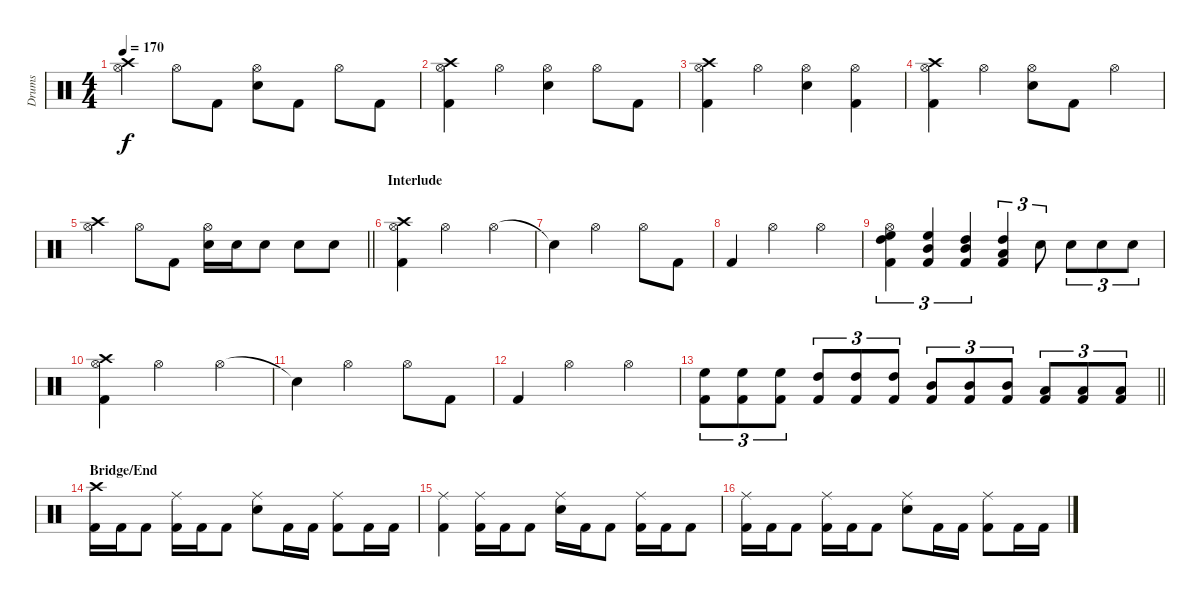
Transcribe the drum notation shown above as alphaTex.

\track ("Drums" "Drums") {instrument percussion}
\staff {score}
\articulation defaults
\ts (4 4)
\tempo 170
\clef neutral
\ks c
("Crash high (hit)" "Hi-Hat (open)").4{dy f} "Hi-Hat (open)".8 "Kick (hit) 2".8 ("Hi-Hat (open)" "Electric Snare (hit)").8 "Kick (hit) 2".8 "Hi-Hat (open)".8 "Kick (hit) 2".8 |
("Crash high (hit)" "Hi-Hat (open)" "Kick (hit) 2").4 "Hi-Hat (open)".4 ("Hi-Hat (open)" "Electric Snare (hit)").4 "Hi-Hat (open)".8 "Kick (hit) 2".8 |
("Crash high (hit)" "Hi-Hat (open)" "Kick (hit) 2").4 "Hi-Hat (open)".4 ("Hi-Hat (open)" "Electric Snare (hit)").4 ("Hi-Hat (open)" "Kick (hit) 2").4 |
("Crash high (hit)" "Hi-Hat (open)" "Kick (hit) 2").4 "Hi-Hat (open)".4 ("Hi-Hat (open)" "Electric Snare (hit)").8 "Kick (hit) 2".8 "Hi-Hat (open)".4 |
\barLineRight lightlight
("Crash high (hit)" "Hi-Hat (open)").4 "Hi-Hat (open)".8 "Kick (hit) 2".8 ("Hi-Hat (open)" "Electric Snare (hit)").16 "Electric Snare (hit)".16 "Electric Snare (hit)".8 "Electric Snare (hit)".8 "Electric Snare (hit)".8 |
\section ("" "Interlude")
("Crash high (hit)" "Hi-Hat (open)" "Kick (hit) 2").4 "Hi-Hat (open)".2 "Hi-Hat (open)".4 |
"Snare (hit)"{t}.4 "Hi-Hat (open)".2 "Hi-Hat (open)".8 "Kick (hit) 2".8 |
"Kick (hit) 2".4 "Hi-Hat (open)".2 "Hi-Hat (open)".4 |
("Hi-Hat (open)" "High Floor Tom (hit)" "High Tom (hit)" "Kick (hit) 2").4{tu (3 2)} ("High Floor Tom (hit)" "Mid Tom (hit)" "Kick (hit) 2").4{tu (3 2)} ("High Tom (hit)" "Mid Tom (hit)" "Kick (hit) 2").4{tu (3 2)} ("High Tom (hit)" "Low Tom (hit)" "Kick (hit) 2").4{tu (3 2)} "Electric Snare (hit)".8{tu (3 2)} "Electric Snare (hit)".8{tu (3 2)} "Electric Snare (hit)".8{tu (3 2)} "Electric Snare (hit)".8{tu (3 2)} |
("Crash high (hit)" "Hi-Hat (open)" "Kick (hit) 2").4 "Hi-Hat (open)".2 "Hi-Hat (open)".4 |
"Snare (hit)"{t}.4 "Hi-Hat (open)".2 "Hi-Hat (open)".8 "Kick (hit) 2".8 |
"Kick (hit) 2".4 "Hi-Hat (open)".2 "Hi-Hat (open)".4 |
\barLineRight lightlight
("High Floor Tom (hit)" "Kick (hit) 2").8{tu (3 2)} ("High Floor Tom (hit)" "Kick (hit) 2").8{tu (3 2)} ("High Floor Tom (hit)" "Kick (hit) 2").8{tu (3 2)} ("High Tom (hit)" "Kick (hit) 2").8{tu (3 2)} ("High Tom (hit)" "Kick (hit) 2").8{tu (3 2)} ("High Tom (hit)" "Kick (hit) 2").8{tu (3 2)} ("Mid Tom (hit)" "Kick (hit) 2").8{tu (3 2)} ("Mid Tom (hit)" "Kick (hit) 2").8{tu (3 2)} ("Mid Tom (hit)" "Kick (hit) 2").8{tu (3 2)} ("Low Tom (hit)" "Kick (hit) 2").8{tu (3 2)} ("Low Tom (hit)" "Kick (hit) 2").8{tu (3 2)} ("Low Tom (hit)" "Kick (hit) 2").8{tu (3 2)} |
\section ("" "Bridge/End")
("Crash high (hit)" "Kick (hit) 2").16 "Kick (hit) 2".16 "Kick (hit) 2".8 ("Ride (middle)" "Kick (hit) 2").16 "Kick (hit) 2".16 "Kick (hit) 2".8 ("Ride (middle)" "Electric Snare (hit)").8 "Kick (hit) 2".16 "Kick (hit) 2".16 ("Ride (middle)" "Kick (hit) 2").8 "Kick (hit) 2".16 "Kick (hit) 2".16 |
("Ride (middle)" "Kick (hit) 2").4 ("Ride (middle)" "Kick (hit) 2").16 "Kick (hit) 2".16 "Kick (hit) 2".8 ("Ride (middle)" "Electric Snare (hit)").16 "Kick (hit) 2".16 "Kick (hit) 2".8 ("Ride (middle)" "Kick (hit) 2").16 "Kick (hit) 2".16 "Kick (hit) 2".8 |
("Ride (middle)" "Kick (hit) 2").16 "Kick (hit) 2".16 "Kick (hit) 2".8 ("Ride (middle)" "Kick (hit) 2").16 "Kick (hit) 2".16 "Kick (hit) 2".8 ("Ride (middle)" "Electric Snare (hit)").8 "Kick (hit) 2".16 "Kick (hit) 2".16 ("Ride (middle)" "Kick (hit) 2").8 "Kick (hit) 2".16 "Kick (hit) 2".16
